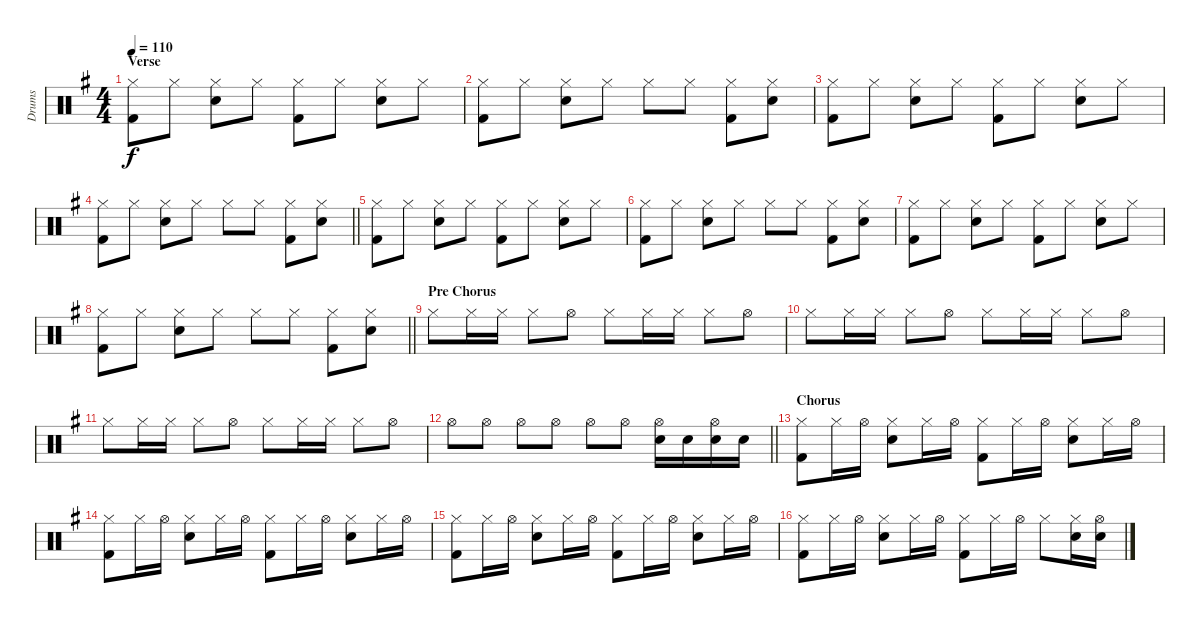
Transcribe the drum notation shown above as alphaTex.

\track ("Drums" "Drums") {instrument percussion}
\staff {score}
\articulation defaults
\ts (4 4)
\section ("" "Verse")
\tempo 110
\clef neutral
\ks g
("Hi-Hat (closed)" "Kick (hit) 2").8{dy f} "Hi-Hat (closed)".8 ("Snare (hit) 2" "Hi-Hat (closed)").8 "Hi-Hat (closed)".8 ("Hi-Hat (closed)" "Kick (hit) 2").8 "Hi-Hat (closed)".8 ("Snare (hit) 2" "Hi-Hat (closed)").8 "Hi-Hat (closed)".8 |
("Hi-Hat (closed)" "Kick (hit) 2").8 "Hi-Hat (closed)".8 ("Snare (hit) 2" "Hi-Hat (closed)").8 "Hi-Hat (closed)".8 "Hi-Hat (closed)".8 "Hi-Hat (closed)".8 ("Hi-Hat (closed)" "Kick (hit) 2").8 ("Snare (hit) 2" "Hi-Hat (closed)").8 |
("Hi-Hat (closed)" "Kick (hit) 2").8 "Hi-Hat (closed)".8 ("Snare (hit) 2" "Hi-Hat (closed)").8 "Hi-Hat (closed)".8 ("Hi-Hat (closed)" "Kick (hit) 2").8 "Hi-Hat (closed)".8 ("Snare (hit) 2" "Hi-Hat (closed)").8 "Hi-Hat (closed)".8 |
\barLineRight lightlight
("Hi-Hat (closed)" "Kick (hit) 2").8 "Hi-Hat (closed)".8 ("Snare (hit) 2" "Hi-Hat (closed)").8 "Hi-Hat (closed)".8 "Hi-Hat (closed)".8 "Hi-Hat (closed)".8 ("Hi-Hat (closed)" "Kick (hit) 2").8 ("Snare (hit) 2" "Hi-Hat (closed)").8 |
("Hi-Hat (closed)" "Kick (hit) 2").8 "Hi-Hat (closed)".8 ("Snare (hit) 2" "Hi-Hat (closed)").8 "Hi-Hat (closed)".8 ("Hi-Hat (closed)" "Kick (hit) 2").8 "Hi-Hat (closed)".8 ("Snare (hit) 2" "Hi-Hat (closed)").8 "Hi-Hat (closed)".8 |
("Hi-Hat (closed)" "Kick (hit) 2").8 "Hi-Hat (closed)".8 ("Snare (hit) 2" "Hi-Hat (closed)").8 "Hi-Hat (closed)".8 "Hi-Hat (closed)".8 "Hi-Hat (closed)".8 ("Hi-Hat (closed)" "Kick (hit) 2").8 ("Snare (hit) 2" "Hi-Hat (closed)").8 |
("Hi-Hat (closed)" "Kick (hit) 2").8 "Hi-Hat (closed)".8 ("Snare (hit) 2" "Hi-Hat (closed)").8 "Hi-Hat (closed)".8 ("Hi-Hat (closed)" "Kick (hit) 2").8 "Hi-Hat (closed)".8 ("Snare (hit) 2" "Hi-Hat (closed)").8 "Hi-Hat (closed)".8 |
\barLineRight lightlight
("Hi-Hat (closed)" "Kick (hit) 2").8 "Hi-Hat (closed)".8 ("Snare (hit) 2" "Hi-Hat (closed)").8 "Hi-Hat (closed)".8 "Hi-Hat (closed)".8 "Hi-Hat (closed)".8 ("Hi-Hat (closed)" "Kick (hit) 2").8 ("Snare (hit) 2" "Hi-Hat (closed)").8 |
\section ("" "Pre Chorus")
"Hi-Hat (closed)".8 "Hi-Hat (closed)".16 "Hi-Hat (closed)".16 "Hi-Hat (closed)".8 "Hi-Hat (open)".8 "Hi-Hat (closed)".8 "Hi-Hat (closed)".16 "Hi-Hat (closed)".16 "Hi-Hat (closed)".8 "Hi-Hat (open)".8 |
"Hi-Hat (closed)".8 "Hi-Hat (closed)".16 "Hi-Hat (closed)".16 "Hi-Hat (closed)".8 "Hi-Hat (open)".8 "Hi-Hat (closed)".8 "Hi-Hat (closed)".16 "Hi-Hat (closed)".16 "Hi-Hat (closed)".8 "Hi-Hat (open)".8 |
"Hi-Hat (closed)".8 "Hi-Hat (closed)".16 "Hi-Hat (closed)".16 "Hi-Hat (closed)".8 "Hi-Hat (open)".8 "Hi-Hat (closed)".8 "Hi-Hat (closed)".16 "Hi-Hat (closed)".16 "Hi-Hat (closed)".8 "Hi-Hat (open)".8 |
\barLineRight lightlight "Hi-Hat (open)".8 "Hi-Hat (open)".8 "Hi-Hat (open)".8 "Hi-Hat (open)".8 "Hi-Hat (open)".8 "Hi-Hat (open)".8
("Snare (hit) 2" "Hi-Hat (open)").16 "Snare (hit) 2".16 ("Snare (hit) 2" "Hi-Hat (open)").16 "Snare (hit) 2".16 |
\section ("" "Chorus")
("Kick (hit) 2" "Hi-Hat (closed)").8 "Hi-Hat (closed)".16 "Hi-Hat (open)".16 ("Snare (hit) 2" "Hi-Hat (closed)").8 "Hi-Hat (closed)".16 "Hi-Hat (open)".16 ("Kick (hit) 2" "Hi-Hat (closed)").8 "Hi-Hat (closed)".16 "Hi-Hat (open)".16 ("Snare (hit) 2" "Hi-Hat (closed)").8 "Hi-Hat (closed)".16 "Hi-Hat (open)".16 |
("Kick (hit) 2" "Hi-Hat (closed)").8 "Hi-Hat (closed)".16 "Hi-Hat (open)".16 ("Snare (hit) 2" "Hi-Hat (closed)").8 "Hi-Hat (closed)".16 "Hi-Hat (open)".16 ("Kick (hit) 2" "Hi-Hat (closed)").8 "Hi-Hat (closed)".16 "Hi-Hat (open)".16 ("Snare (hit) 2" "Hi-Hat (closed)").8 "Hi-Hat (closed)".16 "Hi-Hat (open)".16 |
("Kick (hit) 2" "Hi-Hat (closed)").8 "Hi-Hat (closed)".16 "Hi-Hat (open)".16 ("Snare (hit) 2" "Hi-Hat (closed)").8 "Hi-Hat (closed)".16 "Hi-Hat (open)".16 ("Kick (hit) 2" "Hi-Hat (closed)").8 "Hi-Hat (closed)".16 "Hi-Hat (open)".16 ("Snare (hit) 2" "Hi-Hat (closed)").8 "Hi-Hat (closed)".16 "Hi-Hat (open)".16 |
("Kick (hit) 2" "Hi-Hat (closed)").8 "Hi-Hat (closed)".16 "Hi-Hat (open)".16 ("Snare (hit) 2" "Hi-Hat (closed)").8 "Hi-Hat (closed)".16 "Hi-Hat (open)".16 ("Kick (hit) 2" "Hi-Hat (closed)").8 "Hi-Hat (closed)".16 "Hi-Hat (open)".16 "Hi-Hat (closed)".8 ("Hi-Hat (closed)" "Snare (hit) 2").16 ("Snare (hit) 2" "Hi-Hat (open)").16
